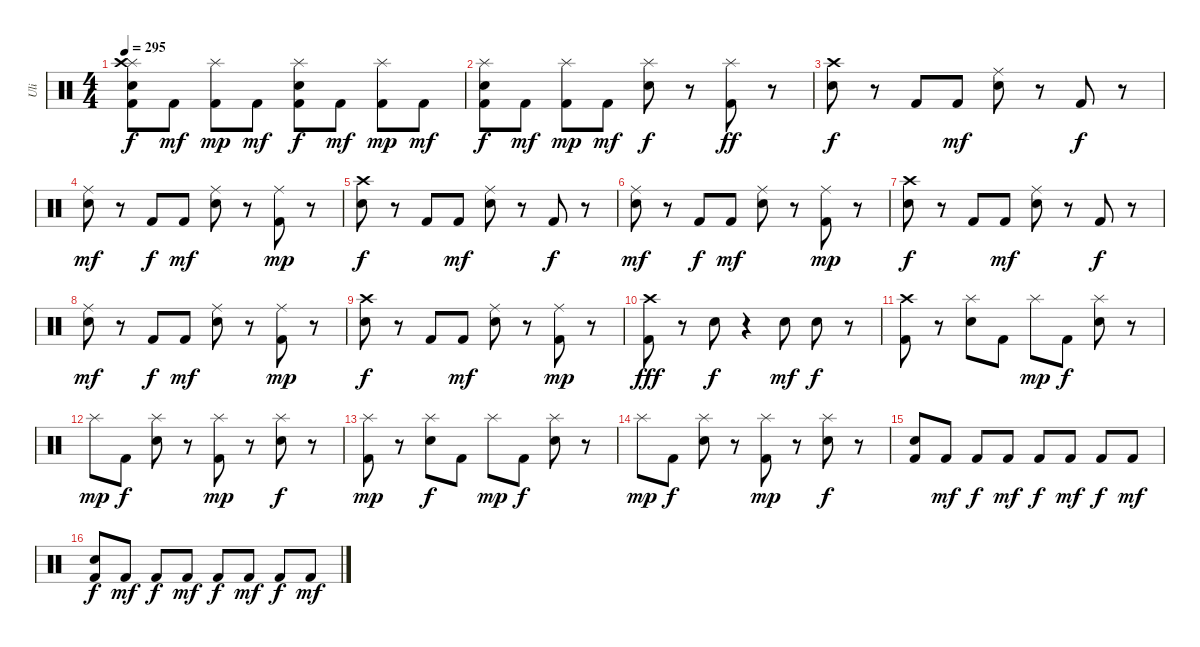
\track ("Uli" "Uli") {instrument percussion}
\staff {score}
\articulation defaults
\ts (4 4)
\tempo 295
\clef neutral
\ks c
("Splash (hit)" "Crash high (hit)" "Electric Snare (hit)" "Kick (hit) 2").8{dy f} "Kick (hit) 2".8{dy mf} ("Splash (hit)" "Kick (hit) 2").8{dy mp} "Kick (hit) 2".8{dy mf} ("Splash (hit)" "Electric Snare (hit)" "Kick (hit) 2").8{dy f} "Kick (hit) 2".8{dy mf} ("Splash (hit)" "Kick (hit) 2").8{dy mp} "Kick (hit) 2".8{dy mf} |
("Splash (hit)" "Electric Snare (hit)" "Kick (hit) 2").8{dy f} "Kick (hit) 2".8{dy mf} ("Splash (hit)" "Kick (hit) 2").8{dy mp} "Kick (hit) 2".8{dy mf} ("Splash (hit)" "Electric Snare (hit)").8{dy f} r.8 ("Splash (hit)" "Kick (hit) 2").8{dy ff} r.8 |
("Crash high (hit)" "Electric Snare (hit)").8{dy f} r.8 "Kick (hit) 2".8 "Kick (hit) 2".8{dy mf} ("Ride (middle)" "Electric Snare (hit)").8 r.8 "Kick (hit) 2".8{dy f} r.8 |
("Ride (middle)" "Electric Snare (hit)").8{dy mf} r.8 "Kick (hit) 2".8{dy f} "Kick (hit) 2".8{dy mf} ("Ride (middle)" "Electric Snare (hit)").8 r.8 ("Ride (middle)" "Kick (hit) 2").8{dy mp} r.8 |
("Crash high (hit)" "Electric Snare (hit)").8{dy f} r.8 "Kick (hit) 2".8 "Kick (hit) 2".8{dy mf} ("Ride (middle)" "Electric Snare (hit)").8 r.8 "Kick (hit) 2".8{dy f} r.8 |
("Ride (middle)" "Electric Snare (hit)").8{dy mf} r.8 "Kick (hit) 2".8{dy f} "Kick (hit) 2".8{dy mf} ("Ride (middle)" "Electric Snare (hit)").8 r.8 ("Ride (middle)" "Kick (hit) 2").8{dy mp} r.8 |
("Crash high (hit)" "Electric Snare (hit)").8{dy f} r.8 "Kick (hit) 2".8 "Kick (hit) 2".8{dy mf} ("Ride (middle)" "Electric Snare (hit)").8 r.8 "Kick (hit) 2".8{dy f} r.8 |
("Ride (middle)" "Electric Snare (hit)").8{dy mf} r.8 "Kick (hit) 2".8{dy f} "Kick (hit) 2".8{dy mf} ("Ride (middle)" "Electric Snare (hit)").8 r.8 ("Ride (middle)" "Kick (hit) 2").8{dy mp} r.8 |
("Crash high (hit)" "Electric Snare (hit)").8{dy f} r.8 "Kick (hit) 2".8 "Kick (hit) 2".8{dy mf} ("Ride (middle)" "Electric Snare (hit)").8 r.8 ("Ride (middle)" "Kick (hit) 2").8{dy mp} r.8 |
("Crash high (hit)" "Kick (hit) 2").8{dy fff} r.8 "Electric Snare (hit)".8{dy f} r.4 "Electric Snare (hit)".8{dy mf} "Electric Snare (hit)".8{dy f} r.8 |
("Crash high (hit)" "Kick (hit) 2").8 r.8 ("Splash (hit)" "Electric Snare (hit)").8 "Kick (hit) 2".8 "Splash (hit)".8{dy mp} "Kick (hit) 2".8{dy f} ("Splash (hit)" "Electric Snare (hit)").8 r.8 |
"Splash (hit)".8{dy mp} "Kick (hit) 2".8{dy f} ("Splash (hit)" "Electric Snare (hit)").8 r.8 ("Splash (hit)" "Kick (hit) 2").8{dy mp} r.8 ("Splash (hit)" "Electric Snare (hit)").8{dy f} r.8 |
("Splash (hit)" "Kick (hit) 2").8{dy mp} r.8 ("Splash (hit)" "Electric Snare (hit)").8{dy f} "Kick (hit) 2".8 "Splash (hit)".8{dy mp} "Kick (hit) 2".8{dy f} ("Splash (hit)" "Electric Snare (hit)").8 r.8 |
"Splash (hit)".8{dy mp} "Kick (hit) 2".8{dy f} ("Splash (hit)" "Electric Snare (hit)").8 r.8 ("Splash (hit)" "Kick (hit) 2").8{dy mp} r.8 ("Splash (hit)" "Electric Snare (hit)").8{dy f} r.8 |
("Electric Snare (hit)" "Kick (hit) 2").8 "Kick (hit) 2".8{dy mf} "Kick (hit) 2".8{dy f} "Kick (hit) 2".8{dy mf} "Kick (hit) 2".8{dy f} "Kick (hit) 2".8{dy mf} "Kick (hit) 2".8{dy f} "Kick (hit) 2".8{dy mf} |
("Electric Snare (hit)" "Kick (hit) 2").8{dy f} "Kick (hit) 2".8{dy mf} "Kick (hit) 2".8{dy f} "Kick (hit) 2".8{dy mf} "Kick (hit) 2".8{dy f} "Kick (hit) 2".8{dy mf} "Kick (hit) 2".8{dy f} "Kick (hit) 2".8{dy mf}
